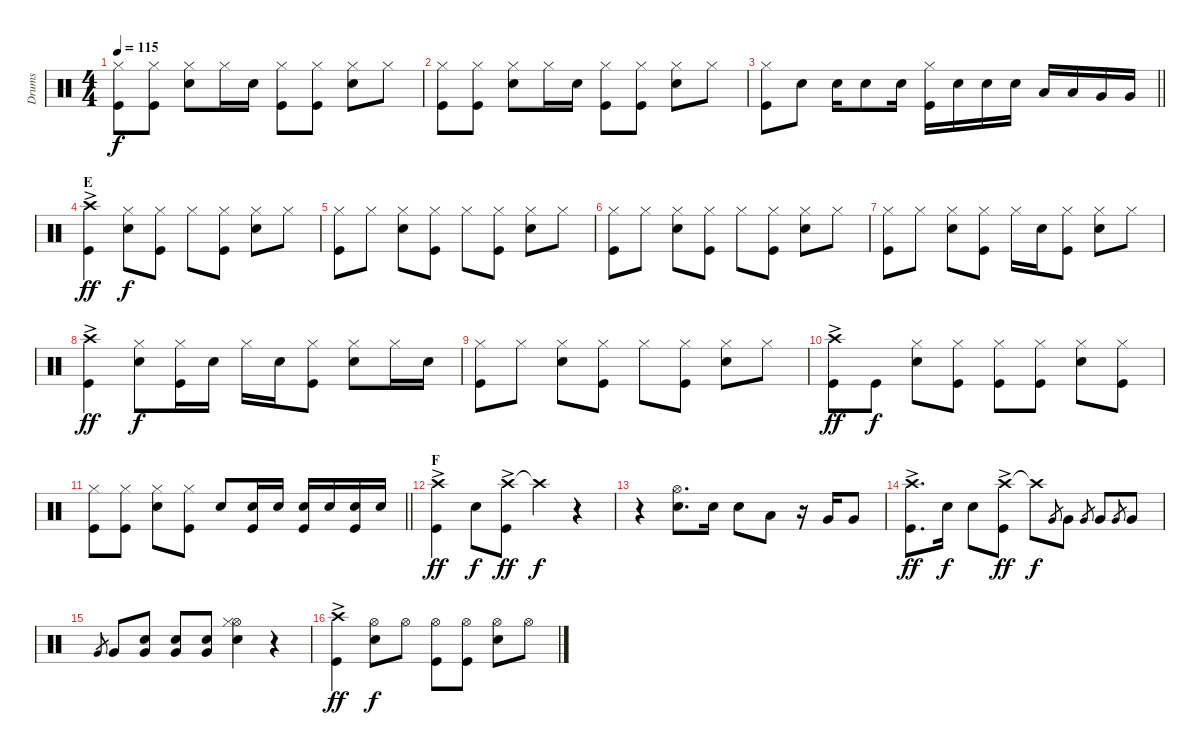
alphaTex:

\track ("Drums" "Drums") {instrument percussion}
\staff {score}
\articulation defaults
\ts (4 4)
\tempo 115
\clef neutral
\ks c
("Hi-Hat (closed)" "Kick (hit)").8{dy f} ("Hi-Hat (closed)" "Kick (hit)").8 ("Hi-Hat (closed)" "Snare (hit) 2").8 "Hi-Hat (closed)".16 "Snare (hit) 2".16 ("Hi-Hat (closed)" "Kick (hit)").8 ("Hi-Hat (closed)" "Kick (hit)").8 ("Hi-Hat (closed)" "Snare (hit) 2").8 "Hi-Hat (closed)".8 |
("Hi-Hat (closed)" "Kick (hit)").8 ("Hi-Hat (closed)" "Kick (hit)").8 ("Hi-Hat (closed)" "Snare (hit) 2").8 "Hi-Hat (closed)".16 "Snare (hit) 2".16 ("Hi-Hat (closed)" "Kick (hit)").8 ("Hi-Hat (closed)" "Kick (hit)").8 ("Hi-Hat (closed)" "Snare (hit) 2").8 "Hi-Hat (closed)".8 |
\barLineRight lightlight
("Hi-Hat (closed)" "Kick (hit)").8 "Snare (hit) 2".8 "Snare (hit) 2".16 "Snare (hit) 2".8 "Snare (hit) 2".16 ("Hi-Hat (closed)" "Kick (hit)").16 "Snare (hit) 2".16 "Snare (hit) 2".16 "Snare (hit) 2".16 "Low Tom (hit)".16 "Low Tom (hit)".16 "Very Low Tom (hit)".16 "Very Low Tom (hit)".16 |
\section ("" "E")
("Crash high (hit)"{ac} "Kick (hit)").4{dy ff} ("Hi-Hat (closed)" "Snare (hit) 2").8{dy f} ("Hi-Hat (closed)" "Kick (hit)").8 "Hi-Hat (closed)".8 ("Hi-Hat (closed)" "Kick (hit)").8 ("Hi-Hat (closed)" "Snare (hit) 2").8 "Hi-Hat (closed)".8 |
("Hi-Hat (closed)" "Kick (hit)").8 "Hi-Hat (closed)".8 ("Hi-Hat (closed)" "Snare (hit) 2").8 ("Hi-Hat (closed)" "Kick (hit)").8 "Hi-Hat (closed)".8 ("Hi-Hat (closed)" "Kick (hit)").8 ("Hi-Hat (closed)" "Snare (hit) 2").8 "Hi-Hat (closed)".8 |
("Hi-Hat (closed)" "Kick (hit)").8 "Hi-Hat (closed)".8 ("Hi-Hat (closed)" "Snare (hit) 2").8 ("Hi-Hat (closed)" "Kick (hit)").8 "Hi-Hat (closed)".8 ("Hi-Hat (closed)" "Kick (hit)").8 ("Hi-Hat (closed)" "Snare (hit) 2").8 "Hi-Hat (closed)".8 |
("Hi-Hat (closed)" "Kick (hit)").8 "Hi-Hat (closed)".8 ("Hi-Hat (closed)" "Snare (hit) 2").8 ("Hi-Hat (closed)" "Kick (hit)").8 "Hi-Hat (closed)".16 "Snare (hit) 2".16 ("Hi-Hat (closed)" "Kick (hit)").8 ("Hi-Hat (closed)" "Snare (hit) 2").8 "Hi-Hat (closed)".8 |
("Crash high (hit)"{ac} "Kick (hit)").4{dy ff} ("Hi-Hat (closed)" "Snare (hit) 2").8{dy f} ("Hi-Hat (closed)" "Kick (hit)").16 "Snare (hit) 2".16 "Hi-Hat (closed)".16 "Snare (hit) 2".16 ("Hi-Hat (closed)" "Kick (hit)").8 ("Hi-Hat (closed)" "Snare (hit) 2").8 "Hi-Hat (closed)".16 "Snare (hit) 2".16 |
("Hi-Hat (closed)" "Kick (hit)").8 "Hi-Hat (closed)".8 ("Hi-Hat (closed)" "Snare (hit) 2").8 ("Hi-Hat (closed)" "Kick (hit)").8 "Hi-Hat (closed)".8 ("Hi-Hat (closed)" "Kick (hit)").8 ("Hi-Hat (closed)" "Snare (hit) 2").8 "Hi-Hat (closed)".8 |
("Crash high (hit)"{ac} "Kick (hit)").8{dy ff} "Kick (hit)".8{dy f} ("Hi-Hat (closed)" "Snare (hit) 2").8 ("Hi-Hat (closed)" "Kick (hit)").8 ("Hi-Hat (closed)" "Kick (hit)").8 ("Hi-Hat (closed)" "Kick (hit)").8 ("Hi-Hat (closed)" "Snare (hit) 2").8 ("Hi-Hat (closed)" "Kick (hit)").8 |
\barLineRight lightlight
("Hi-Hat (closed)" "Kick (hit)").8 ("Hi-Hat (closed)" "Kick (hit)").8 ("Hi-Hat (closed)" "Snare (hit) 2").8 ("Hi-Hat (closed)" "Kick (hit)").8 "Snare (hit) 2".8 ("Snare (hit) 2" "Kick (hit)").16 "Snare (hit) 2".16 ("Snare (hit) 2" "Kick (hit)").16 "Snare (hit) 2".16 ("Snare (hit) 2" "Kick (hit)").16 "Snare (hit) 2".16 |
\section ("" "F")
("Crash high (hit)"{ac} "Kick (hit)").4{dy ff} "Snare (hit) 2".8{dy f} ("Crash high (hit)"{ac} "Kick (hit)").8{dy ff} "Crash high (hit)"{t}.4{dy f} r.4 |
r.4 ("Snare (hit) 2" "Hi-Hat (open)").8{d} "Snare (hit) 2".16 "Snare (hit) 2".8 "Low Tom (hit)".8 r.16 "Very Low Tom (hit)".16 "Very Low Tom (hit)".8 |
("Crash high (hit)"{ac} "Kick (hit)").8{d dy ff} "Snare (hit) 2".16{dy f} "Snare (hit) 2".8 ("Crash high (hit)"{ac} "Kick (hit)").8{dy ff} "Crash high (hit)"{t}.8{dy f} "Very Low Tom (hit)"{h}.8{gr} "Very Low Tom (hit)".8 "Very Low Tom (hit)"{h}.8{gr} "Very Low Tom (hit)".8 "Very Low Tom (hit)"{h}.8{gr} "Very Low Tom (hit)".8 |
"Very Low Tom (hit)"{h}.8{gr} "Very Low Tom (hit)".8 ("Very Low Tom (hit)" "Snare (hit) 2").8 ("Very Low Tom (hit)" "Snare (hit) 2").8 ("Very Low Tom (hit)" "Snare (hit) 2").8 ("Snare (hit) 2" "Hi-Hat (open)" "Hi-Hat (closed)").4 r.4 |
("Crash high (hit)"{ac} "Kick (hit)").4{dy ff} ("Hi-Hat (open)" "Snare (hit) 2").8{dy f} "Hi-Hat (open)".8 ("Hi-Hat (open)" "Kick (hit)").8 ("Hi-Hat (open)" "Kick (hit)").8 ("Hi-Hat (open)" "Snare (hit) 2").8 "Hi-Hat (open)".8
